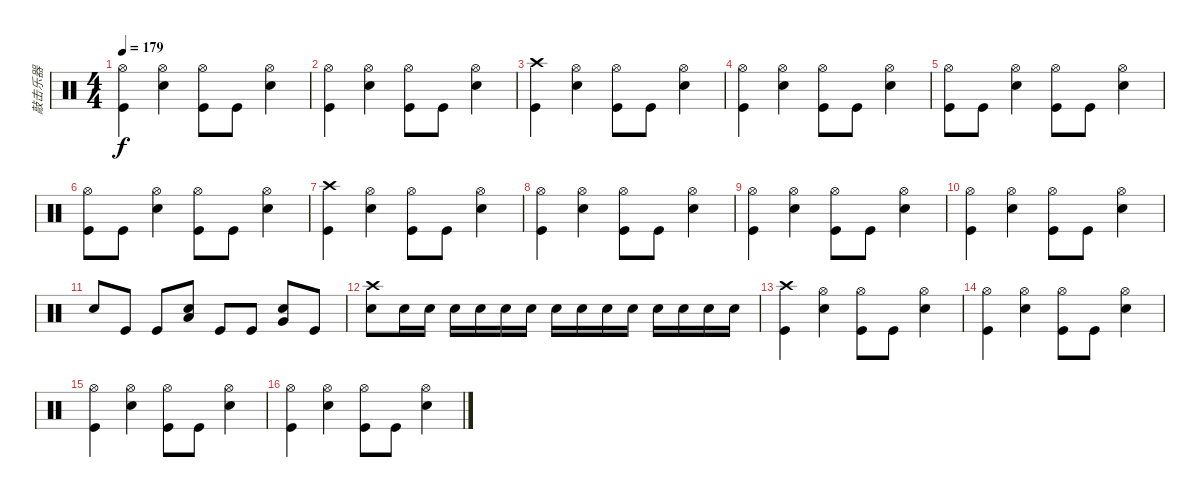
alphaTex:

\track ("敲击乐器" "敲击乐器") {instrument percussion}
\staff {score}
\articulation defaults
\ts (4 4)
\tempo 179
\clef neutral
\ks c
("Hi-Hat (open)" "Kick (hit)").4{dy f} ("Hi-Hat (open)" "Electric Snare (hit)").4 ("Hi-Hat (open)" "Kick (hit)").8 "Kick (hit)".8 ("Hi-Hat (open)" "Electric Snare (hit)").4 |
("Hi-Hat (open)" "Kick (hit)").4 ("Hi-Hat (open)" "Electric Snare (hit)").4 ("Hi-Hat (open)" "Kick (hit)").8 "Kick (hit)".8 ("Hi-Hat (open)" "Electric Snare (hit)").4 |
("Crash high (hit)" "Kick (hit)").4 ("Hi-Hat (open)" "Electric Snare (hit)").4 ("Hi-Hat (open)" "Kick (hit)").8 "Kick (hit)".8 ("Hi-Hat (open)" "Electric Snare (hit)").4 |
("Hi-Hat (open)" "Kick (hit)").4 ("Hi-Hat (open)" "Electric Snare (hit)").4 ("Hi-Hat (open)" "Kick (hit)").8 "Kick (hit)".8 ("Hi-Hat (open)" "Electric Snare (hit)").4 |
("Hi-Hat (open)" "Kick (hit)").8 "Kick (hit)".8 ("Hi-Hat (open)" "Electric Snare (hit)").4 ("Hi-Hat (open)" "Kick (hit)").8 "Kick (hit)".8 ("Hi-Hat (open)" "Electric Snare (hit)").4 |
("Hi-Hat (open)" "Kick (hit)").8 "Kick (hit)".8 ("Hi-Hat (open)" "Electric Snare (hit)").4 ("Hi-Hat (open)" "Kick (hit)").8 "Kick (hit)".8 ("Hi-Hat (open)" "Electric Snare (hit)").4 |
("Crash high (hit)" "Kick (hit)").4 ("Hi-Hat (open)" "Electric Snare (hit)").4 ("Hi-Hat (open)" "Kick (hit)").8 "Kick (hit)".8 ("Hi-Hat (open)" "Electric Snare (hit)").4 |
("Hi-Hat (open)" "Kick (hit)").4 ("Hi-Hat (open)" "Electric Snare (hit)").4 ("Hi-Hat (open)" "Kick (hit)").8 "Kick (hit)".8 ("Hi-Hat (open)" "Electric Snare (hit)").4 |
("Hi-Hat (open)" "Kick (hit)").4 ("Hi-Hat (open)" "Electric Snare (hit)").4 ("Hi-Hat (open)" "Kick (hit)").8 "Kick (hit)".8 ("Hi-Hat (open)" "Electric Snare (hit)").4 |
("Hi-Hat (open)" "Kick (hit)").4 ("Hi-Hat (open)" "Electric Snare (hit)").4 ("Hi-Hat (open)" "Kick (hit)").8 "Kick (hit)".8 ("Hi-Hat (open)" "Electric Snare (hit)").4 |
"Electric Snare (hit)".8 "Kick (hit)".8 "Kick (hit)".8 ("Low Tom (hit)" "Electric Snare (hit)").8 "Kick (hit)".8 "Kick (hit)".8 ("Very Low Tom (hit)" "Electric Snare (hit)").8 "Kick (hit)".8 |
("Crash high (hit)" "Electric Snare (hit)").8 "Electric Snare (hit)".16 "Electric Snare (hit)".16 "Electric Snare (hit)".16 "Electric Snare (hit)".16 "Snare (hit)".16 "Electric Snare (hit)".16 "Electric Snare (hit)".16 "Snare (hit)".16 "Snare (hit)".16 "Electric Snare (hit)".16 "Electric Snare (hit)".16 "Electric Snare (hit)".16 "Electric Snare (hit)".16 "Electric Snare (hit)".16 |
("Crash high (hit)" "Kick (hit)").4 ("Hi-Hat (open)" "Electric Snare (hit)").4 ("Hi-Hat (open)" "Kick (hit)").8 "Kick (hit)".8 ("Hi-Hat (open)" "Electric Snare (hit)").4 |
("Hi-Hat (open)" "Kick (hit)").4 ("Hi-Hat (open)" "Electric Snare (hit)").4 ("Hi-Hat (open)" "Kick (hit)").8 "Kick (hit)".8 ("Hi-Hat (open)" "Electric Snare (hit)").4 |
("Hi-Hat (open)" "Kick (hit)").4 ("Hi-Hat (open)" "Electric Snare (hit)").4 ("Hi-Hat (open)" "Kick (hit)").8 "Kick (hit)".8 ("Hi-Hat (open)" "Electric Snare (hit)").4 |
("Hi-Hat (open)" "Kick (hit)").4 ("Hi-Hat (open)" "Electric Snare (hit)").4 ("Hi-Hat (open)" "Kick (hit)").8 "Kick (hit)".8 ("Hi-Hat (open)" "Electric Snare (hit)").4
